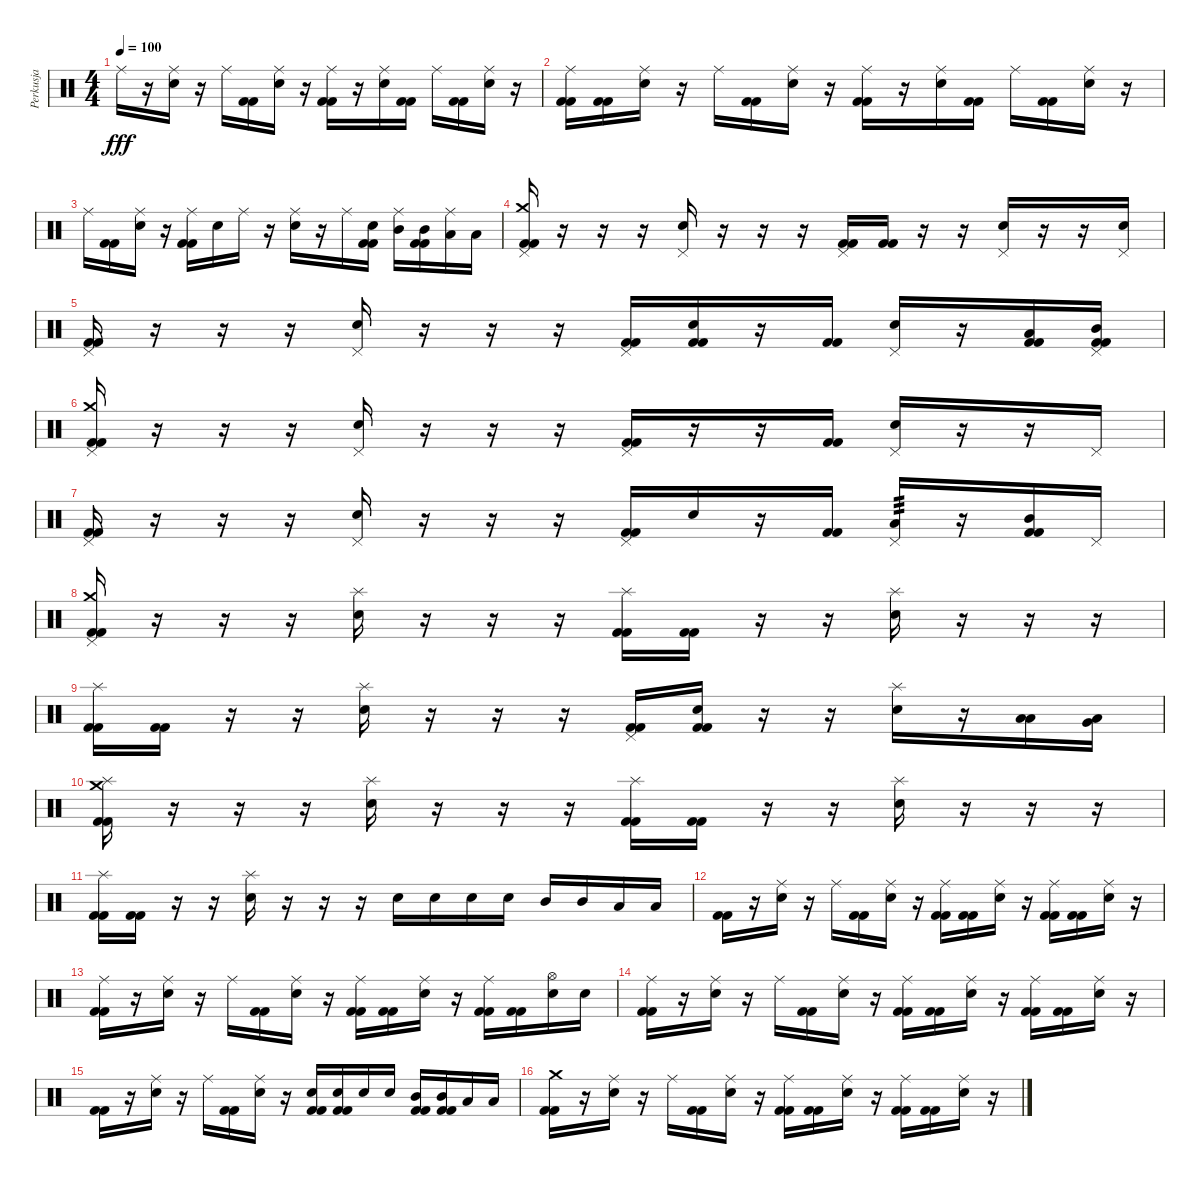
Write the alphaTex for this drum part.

\track ("Perkusja" "Perkusja") {instrument percussion}
\staff {score}
\articulation defaults
\ts (4 4)
\tempo 100
\clef neutral
\ks c "Ride (middle)".16{dy fff}
r.16 ("Snare (hit) 2" "Ride (middle)").16 r.16 "Ride (middle)".16 ("Kick (hit) 2" "Kick (hit) 2").16 ("Snare (hit) 2" "Ride (middle)").16 r.16 ("Ride (middle)" "Kick (hit) 2" "Kick (hit) 2").16 r.16 ("Snare (hit) 2" "Ride (middle)").16 ("Kick (hit) 2" "Kick (hit) 2").16 "Ride (middle)".16 ("Kick (hit) 2" "Kick (hit) 2").16 ("Snare (hit) 2" "Ride (middle)").16 r.16 |
("Ride (middle)" "Kick (hit) 2" "Kick (hit) 2").16 ("Kick (hit) 2" "Kick (hit) 2").16 ("Snare (hit) 2" "Ride (middle)").16 r.16 "Ride (middle)".16 ("Kick (hit) 2" "Kick (hit) 2").16 ("Snare (hit) 2" "Ride (middle)").16 r.16 ("Ride (middle)" "Kick (hit) 2" "Kick (hit) 2").16 r.16 ("Snare (hit) 2" "Ride (middle)").16 ("Kick (hit) 2" "Kick (hit) 2").16 "Ride (middle)".16 ("Kick (hit) 2" "Kick (hit) 2").16 ("Snare (hit) 2" "Ride (middle)").16 r.16 |
"Ride (middle)".16 ("Kick (hit) 2" "Kick (hit) 2").16 ("Snare (hit) 2" "Ride (middle)").16 r.16 ("Ride (middle)" "Kick (hit) 2" "Kick (hit) 2").16 "Snare (hit) 2".16 "Ride (middle)".16 r.16 ("Snare (hit) 2" "Ride (middle)").16 r.16 "Ride (middle)".16 ("Snare (hit) 2" "Kick (hit) 2" "Kick (hit) 2").16 ("Mid Tom (hit)" "Ride (middle)").16 ("Mid Tom (hit)" "Kick (hit) 2" "Kick (hit) 2").16 ("Low Tom (hit)" "Ride (middle)").16 "Low Tom (hit)".16 |
("Crash medium (hit)" "Pedal Hi-Hat (hit)" "Kick (hit) 2" "Kick (hit) 2").16 r.16 r.16 r.16 ("Snare (hit) 2" "Pedal Hi-Hat (hit)").16 r.16 r.16 r.16 ("Pedal Hi-Hat (hit)" "Kick (hit) 2" "Kick (hit) 2").16 ("Kick (hit) 2" "Kick (hit) 2").16 r.16 r.16 ("Snare (hit) 2" "Pedal Hi-Hat (hit)").16 r.16 r.16 ("Snare (hit) 2" "Pedal Hi-Hat (hit)").16 |
("Pedal Hi-Hat (hit)" "Kick (hit) 2" "Kick (hit) 2").16 r.16 r.16 r.16 ("Snare (hit) 2" "Pedal Hi-Hat (hit)").16 r.16 r.16 r.16 ("Pedal Hi-Hat (hit)" "Kick (hit) 2" "Kick (hit) 2").16 ("Snare (hit) 2" "Kick (hit) 2" "Kick (hit) 2").16 r.16 ("Kick (hit) 2" "Kick (hit) 2").16 ("Snare (hit) 2" "Pedal Hi-Hat (hit)").16 r.16 ("Low Tom (hit)" "Kick (hit) 2" "Kick (hit) 2").16 ("Mid Tom (hit)" "Pedal Hi-Hat (hit)" "Kick (hit) 2" "Kick (hit) 2").16 |
("Crash medium (hit)" "Pedal Hi-Hat (hit)" "Kick (hit) 2" "Kick (hit) 2").16 r.16 r.16 r.16 ("Snare (hit) 2" "Pedal Hi-Hat (hit)").16 r.16 r.16 r.16 ("Pedal Hi-Hat (hit)" "Kick (hit) 2" "Kick (hit) 2").16 r.16 r.16 ("Kick (hit) 2" "Kick (hit) 2").16 ("Snare (hit) 2" "Pedal Hi-Hat (hit)").16 r.16 r.16 "Pedal Hi-Hat (hit)".16 |
("Pedal Hi-Hat (hit)" "Kick (hit) 2" "Kick (hit) 2").16 r.16 r.16 r.16 ("Snare (hit) 2" "Pedal Hi-Hat (hit)").16 r.16 r.16 r.16 ("Pedal Hi-Hat (hit)" "Kick (hit) 2" "Kick (hit) 2").16 "Snare (hit) 2".16 r.16 ("Kick (hit) 2" "Kick (hit) 2").16 ("Low Tom (hit)" "Pedal Hi-Hat (hit)").16{tp 3} r.16 ("Mid Tom (hit)" "Kick (hit) 2" "Kick (hit) 2").16 "Pedal Hi-Hat (hit)".16 |
("Crash medium (hit)" "Pedal Hi-Hat (hit)" "Kick (hit) 2" "Kick (hit) 2").16 r.16 r.16 r.16 ("Snare (hit) 2" "Splash (hit)").16 r.16 r.16 r.16 ("Splash (hit)" "Kick (hit) 2" "Kick (hit) 2").16 ("Kick (hit) 2" "Kick (hit) 2").16 r.16 r.16 ("Snare (hit) 2" "Splash (hit)").16 r.16 r.16 r.16 |
("Splash (hit)" "Kick (hit) 2" "Kick (hit) 2").16 ("Kick (hit) 2" "Kick (hit) 2").16 r.16 r.16 ("Snare (hit) 2" "Splash (hit)").16 r.16 r.16 r.16 ("Pedal Hi-Hat (hit)" "Kick (hit) 2" "Kick (hit) 2").16 ("Snare (hit) 2" "Kick (hit) 2" "Kick (hit) 2").16 r.16 r.16 ("Snare (hit) 2" "Splash (hit)").16 r.16 ("Low Tom (hit)" "Low Tom (hit)").16 ("Very Low Tom (hit)" "Low Tom (hit)").16 |
("Crash medium (hit)" "Splash (hit)" "Kick (hit) 2" "Kick (hit) 2").16 r.16 r.16 r.16 ("Snare (hit) 2" "Splash (hit)").16 r.16 r.16 r.16 ("Splash (hit)" "Kick (hit) 2" "Kick (hit) 2").16 ("Kick (hit) 2" "Kick (hit) 2").16 r.16 r.16 ("Snare (hit) 2" "Splash (hit)").16 r.16 r.16 r.16 |
("Splash (hit)" "Kick (hit) 2" "Kick (hit) 2").16 ("Kick (hit) 2" "Kick (hit) 2").16 r.16 r.16 ("Snare (hit) 2" "Splash (hit)").16 r.16 r.16 r.16 "Snare (hit) 2".16 "Snare (hit) 2".16 "Snare (hit) 2".16 "Snare (hit) 2".16 "Mid Tom (hit)".16 "Mid Tom (hit)".16 "Low Tom (hit)".16 "Low Tom (hit)".16 |
("Kick (hit) 2" "Kick (hit) 2").16 r.16 ("Snare (hit) 2" "Ride (middle)").16 r.16 "Ride (middle)".16 ("Kick (hit) 2" "Kick (hit) 2").16 ("Snare (hit) 2" "Ride (middle)").16 r.16 ("Ride (middle)" "Kick (hit) 2" "Kick (hit) 2").16 ("Kick (hit) 2" "Kick (hit) 2").16 ("Snare (hit) 2" "Ride (middle)").16 r.16 ("Ride (middle)" "Kick (hit) 2" "Kick (hit) 2").16 ("Kick (hit) 2" "Kick (hit) 2").16 ("Snare (hit) 2" "Ride (middle)").16 r.16 |
("Ride (middle)" "Kick (hit) 2" "Kick (hit) 2").16 r.16 ("Snare (hit) 2" "Ride (middle)").16 r.16 "Ride (middle)".16 ("Kick (hit) 2" "Kick (hit) 2").16 ("Snare (hit) 2" "Ride (middle)").16 r.16 ("Ride (middle)" "Kick (hit) 2" "Kick (hit) 2").16 ("Kick (hit) 2" "Kick (hit) 2").16 ("Snare (hit) 2" "Ride (middle)").16 r.16 ("Ride (middle)" "Kick (hit) 2" "Kick (hit) 2").16 ("Kick (hit) 2" "Kick (hit) 2").16 ("Snare (hit) 2" "Hi-Hat (open)").16 "Snare (hit) 2".16 |
("Ride (middle)" "Kick (hit) 2" "Kick (hit) 2").16 r.16 ("Snare (hit) 2" "Ride (middle)").16 r.16 "Ride (middle)".16 ("Kick (hit) 2" "Kick (hit) 2").16 ("Snare (hit) 2" "Ride (middle)").16 r.16 ("Ride (middle)" "Kick (hit) 2" "Kick (hit) 2").16 ("Kick (hit) 2" "Kick (hit) 2").16 ("Snare (hit) 2" "Ride (middle)").16 r.16 ("Ride (middle)" "Kick (hit) 2" "Kick (hit) 2").16 ("Kick (hit) 2" "Kick (hit) 2").16 ("Snare (hit) 2" "Ride (middle)").16 r.16 |
("Kick (hit) 2" "Kick (hit) 2").16 r.16 ("Snare (hit) 2" "Ride (middle)").16 r.16 "Ride (middle)".16 ("Kick (hit) 2" "Kick (hit) 2").16 ("Snare (hit) 2" "Ride (middle)").16 r.16 ("Snare (hit) 2" "Kick (hit) 2" "Kick (hit) 2").16 ("Snare (hit) 2" "Kick (hit) 2" "Kick (hit) 2").16 "Snare (hit) 2".16 "Snare (hit) 2".16 ("Mid Tom (hit)" "Kick (hit) 2" "Kick (hit) 2").16 ("Mid Tom (hit)" "Kick (hit) 2" "Kick (hit) 2").16 "Low Tom (hit)".16 "Low Tom (hit)".16 |
("Crash medium (hit)" "Kick (hit) 2" "Kick (hit) 2").16 r.16 ("Snare (hit) 2" "Ride (middle)").16 r.16 "Ride (middle)".16 ("Kick (hit) 2" "Kick (hit) 2").16 ("Snare (hit) 2" "Ride (middle)").16 r.16 ("Ride (middle)" "Kick (hit) 2" "Kick (hit) 2").16 ("Kick (hit) 2" "Kick (hit) 2").16 ("Snare (hit) 2" "Ride (middle)").16 r.16 ("Ride (middle)" "Kick (hit) 2" "Kick (hit) 2").16 ("Kick (hit) 2" "Kick (hit) 2").16 ("Snare (hit) 2" "Ride (middle)").16 r.16
